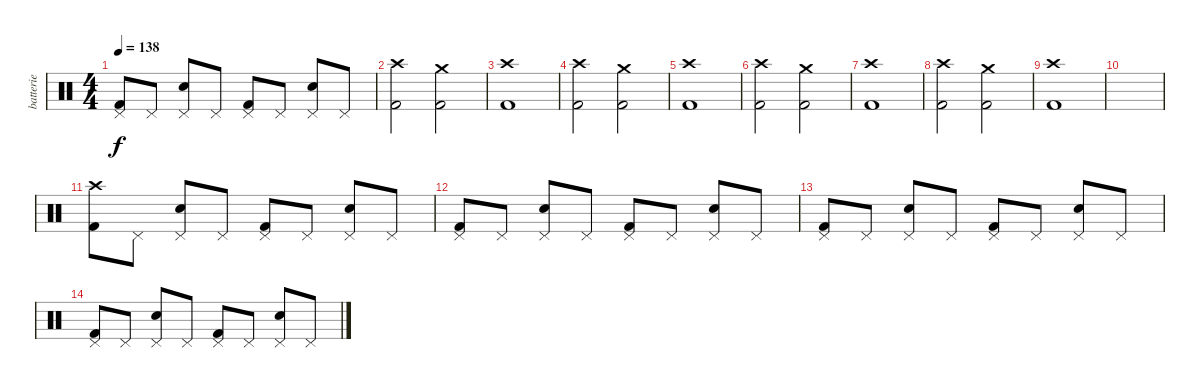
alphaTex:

\track ("batterie" "batterie") {instrument percussion}
\staff {score}
\articulation defaults
\ts (4 4)
\tempo 138
\clef neutral
\ks c
("Kick (hit) 2" "Pedal Hi-Hat (hit)").8{dy f} "Pedal Hi-Hat (hit)".8 ("Electric Snare (hit)" "Pedal Hi-Hat (hit)").8 "Pedal Hi-Hat (hit)".8 ("Kick (hit) 2" "Pedal Hi-Hat (hit)").8 "Pedal Hi-Hat (hit)".8 ("Electric Snare (hit)" "Pedal Hi-Hat (hit)").8 "Pedal Hi-Hat (hit)".8 |
("Crash high (hit)" "Kick (hit) 2").2 ("Crash medium (hit)" "Kick (hit) 2").2 |
("Crash high (hit)" "Kick (hit) 2").1 |
("Crash high (hit)" "Kick (hit) 2").2 ("Crash medium (hit)" "Kick (hit) 2").2 |
("Crash high (hit)" "Kick (hit) 2").1 |
("Crash high (hit)" "Kick (hit) 2").2 ("Crash medium (hit)" "Kick (hit) 2").2 |
("Crash high (hit)" "Kick (hit) 2").1 |
("Crash high (hit)" "Kick (hit) 2").2 ("Crash medium (hit)" "Kick (hit) 2").2 |
("Crash high (hit)" "Kick (hit) 2").1 |
|
("Crash high (hit)" "Kick (hit) 2").8 "Pedal Hi-Hat (hit)".8 ("Electric Snare (hit)" "Pedal Hi-Hat (hit)").8 "Pedal Hi-Hat (hit)".8 ("Kick (hit) 2" "Pedal Hi-Hat (hit)").8 "Pedal Hi-Hat (hit)".8 ("Electric Snare (hit)" "Pedal Hi-Hat (hit)").8 "Pedal Hi-Hat (hit)".8 |
("Kick (hit) 2" "Pedal Hi-Hat (hit)").8 "Pedal Hi-Hat (hit)".8 ("Electric Snare (hit)" "Pedal Hi-Hat (hit)").8 "Pedal Hi-Hat (hit)".8 ("Kick (hit) 2" "Pedal Hi-Hat (hit)").8 "Pedal Hi-Hat (hit)".8 ("Electric Snare (hit)" "Pedal Hi-Hat (hit)").8 "Pedal Hi-Hat (hit)".8 |
("Kick (hit) 2" "Pedal Hi-Hat (hit)").8 "Pedal Hi-Hat (hit)".8 ("Electric Snare (hit)" "Pedal Hi-Hat (hit)").8 "Pedal Hi-Hat (hit)".8 ("Kick (hit) 2" "Pedal Hi-Hat (hit)").8 "Pedal Hi-Hat (hit)".8 ("Electric Snare (hit)" "Pedal Hi-Hat (hit)").8 "Pedal Hi-Hat (hit)".8 |
("Kick (hit) 2" "Pedal Hi-Hat (hit)").8 "Pedal Hi-Hat (hit)".8 ("Electric Snare (hit)" "Pedal Hi-Hat (hit)").8 "Pedal Hi-Hat (hit)".8 ("Kick (hit) 2" "Pedal Hi-Hat (hit)").8 "Pedal Hi-Hat (hit)".8 ("Electric Snare (hit)" "Pedal Hi-Hat (hit)").8 "Pedal Hi-Hat (hit)".8
